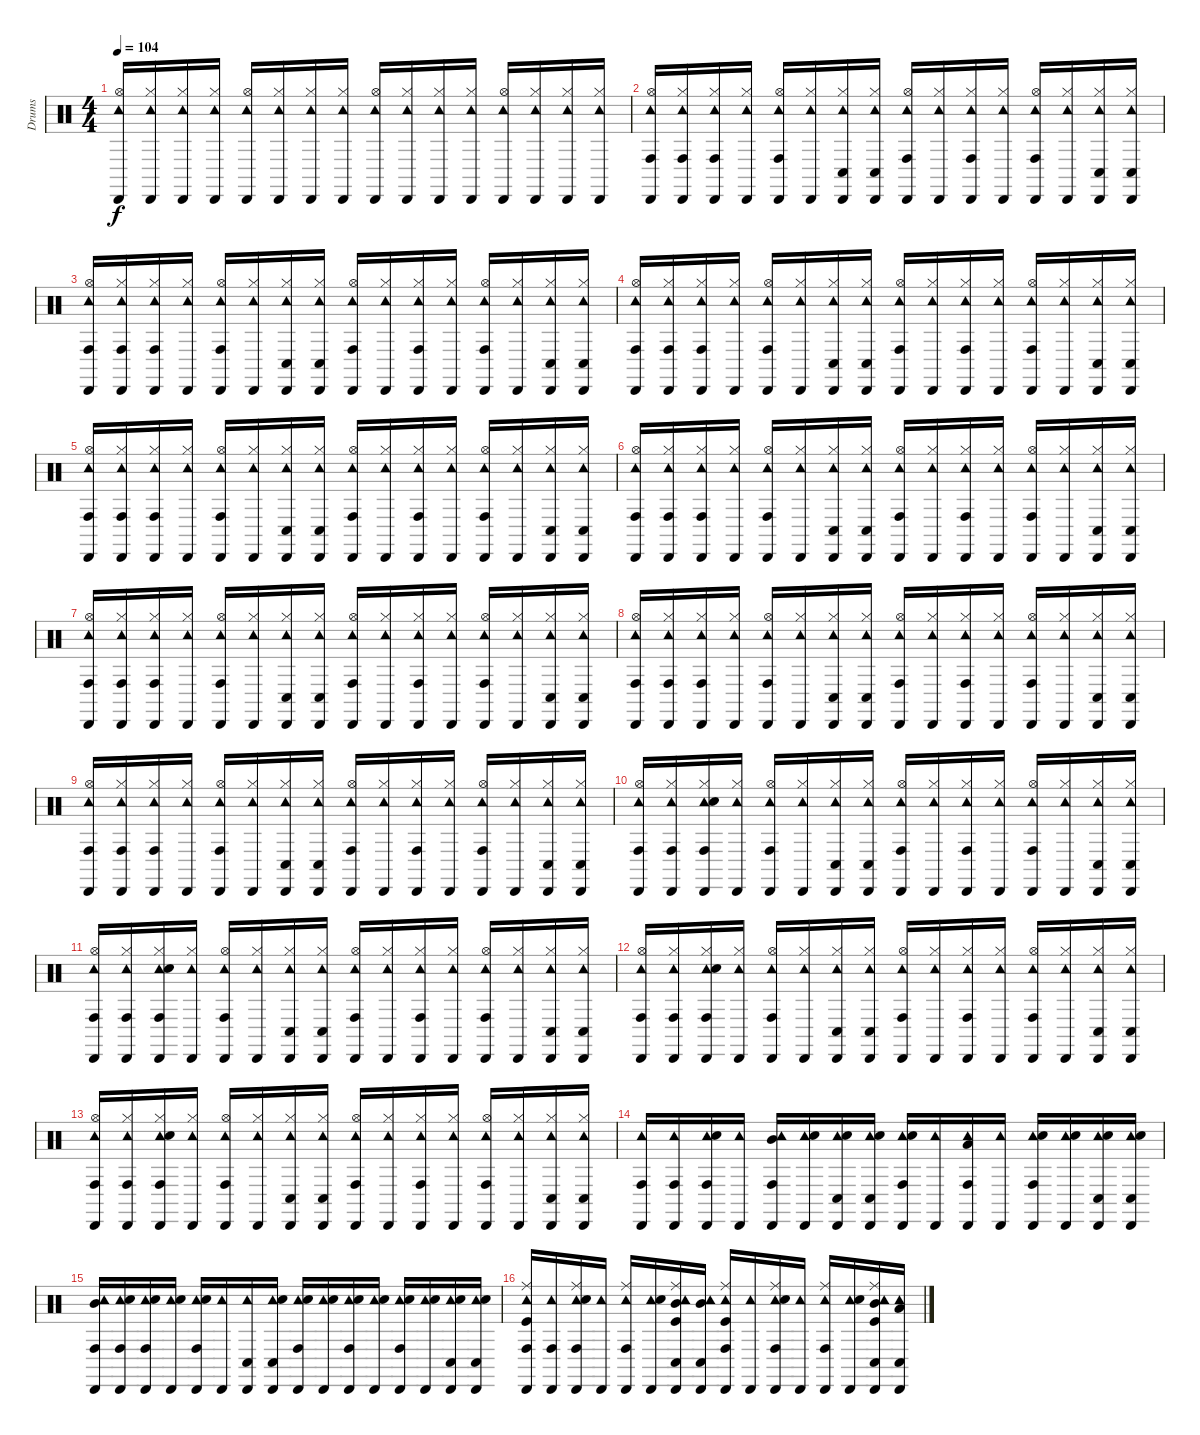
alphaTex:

\track ("Drums" "Drums") {instrument percussion}
\staff {score}
\articulation defaults
\ts (4 4)
\tempo 104
\clef neutral
\ks c
("Cabasa (hit)" "Hi-Hat (open)" "Tambourine (hit)").16{dy f} ("Cabasa (hit)" "Hi-Hat (closed)" "Tambourine (hit)").16 ("Cabasa (hit)" "Hi-Hat (closed)" "Tambourine (hit)").16 ("Cabasa (hit)" "Hi-Hat (closed)" "Tambourine (hit)").16 ("Cabasa (hit)" "Hi-Hat (open)" "Tambourine (hit)").16 ("Cabasa (hit)" "Hi-Hat (closed)" "Tambourine (hit)").16 ("Cabasa (hit)" "Hi-Hat (closed)" "Tambourine (hit)").16 ("Cabasa (hit)" "Hi-Hat (closed)" "Tambourine (hit)").16 ("Cabasa (hit)" "Hi-Hat (open)" "Tambourine (hit)").16 ("Cabasa (hit)" "Hi-Hat (closed)" "Tambourine (hit)").16 ("Cabasa (hit)" "Hi-Hat (closed)" "Tambourine (hit)").16 ("Cabasa (hit)" "Hi-Hat (closed)" "Tambourine (hit)").16 ("Cabasa (hit)" "Hi-Hat (open)" "Tambourine (hit)").16 ("Cabasa (hit)" "Hi-Hat (closed)" "Tambourine (hit)").16 ("Cabasa (hit)" "Hi-Hat (closed)" "Tambourine (hit)").16 ("Cabasa (hit)" "Hi-Hat (closed)" "Tambourine (hit)").16 |
("Cabasa (hit)" "Hi-Hat (open)" "Tambourine (hit)" "Conga high (hit)").16 ("Cabasa (hit)" "Hi-Hat (closed)" "Tambourine (hit)" "Conga high (hit)").16 ("Cabasa (hit)" "Hi-Hat (closed)" "Tambourine (hit)" "Conga high (hit)").16 ("Cabasa (hit)" "Hi-Hat (closed)" "Tambourine (hit)").16 ("Cabasa (hit)" "Hi-Hat (open)" "Tambourine (hit)" "Conga high (hit)").16 ("Cabasa (hit)" "Hi-Hat (closed)" "Tambourine (hit)").16 ("Cabasa (hit)" "Hi-Hat (closed)" "Tambourine (hit)" "Conga low (hit)").16 ("Cabasa (hit)" "Hi-Hat (closed)" "Tambourine (hit)" "Conga low (hit)").16 ("Cabasa (hit)" "Hi-Hat (open)" "Tambourine (hit)" "Conga high (hit)").16 ("Cabasa (hit)" "Hi-Hat (closed)" "Tambourine (hit)").16 ("Cabasa (hit)" "Hi-Hat (closed)" "Tambourine (hit)" "Conga high (hit)").16 ("Cabasa (hit)" "Hi-Hat (closed)" "Tambourine (hit)").16 ("Cabasa (hit)" "Hi-Hat (open)" "Tambourine (hit)" "Conga high (hit)").16 ("Cabasa (hit)" "Hi-Hat (closed)" "Tambourine (hit)").16 ("Cabasa (hit)" "Hi-Hat (closed)" "Tambourine (hit)" "Conga low (hit)").16 ("Cabasa (hit)" "Hi-Hat (closed)" "Tambourine (hit)" "Conga low (hit)").16 |
("Cabasa (hit)" "Hi-Hat (open)" "Tambourine (hit)" "Conga high (hit)").16 ("Cabasa (hit)" "Hi-Hat (closed)" "Tambourine (hit)" "Conga high (hit)").16 ("Cabasa (hit)" "Hi-Hat (closed)" "Tambourine (hit)" "Conga high (hit)").16 ("Cabasa (hit)" "Hi-Hat (closed)" "Tambourine (hit)").16 ("Cabasa (hit)" "Hi-Hat (open)" "Tambourine (hit)" "Conga high (hit)").16 ("Cabasa (hit)" "Hi-Hat (closed)" "Tambourine (hit)").16 ("Cabasa (hit)" "Hi-Hat (closed)" "Tambourine (hit)" "Conga low (hit)").16 ("Cabasa (hit)" "Hi-Hat (closed)" "Tambourine (hit)" "Conga low (hit)").16 ("Cabasa (hit)" "Hi-Hat (open)" "Tambourine (hit)" "Conga high (hit)").16 ("Cabasa (hit)" "Hi-Hat (closed)" "Tambourine (hit)").16 ("Cabasa (hit)" "Hi-Hat (closed)" "Tambourine (hit)" "Conga high (hit)").16 ("Cabasa (hit)" "Hi-Hat (closed)" "Tambourine (hit)").16 ("Cabasa (hit)" "Hi-Hat (open)" "Tambourine (hit)" "Conga high (hit)").16 ("Cabasa (hit)" "Hi-Hat (closed)" "Tambourine (hit)").16 ("Cabasa (hit)" "Hi-Hat (closed)" "Tambourine (hit)" "Conga low (hit)").16 ("Cabasa (hit)" "Hi-Hat (closed)" "Tambourine (hit)" "Conga low (hit)").16 |
("Cabasa (hit)" "Hi-Hat (open)" "Tambourine (hit)" "Conga high (hit)").16 ("Cabasa (hit)" "Hi-Hat (closed)" "Tambourine (hit)" "Conga high (hit)").16 ("Cabasa (hit)" "Hi-Hat (closed)" "Tambourine (hit)" "Conga high (hit)").16 ("Cabasa (hit)" "Hi-Hat (closed)" "Tambourine (hit)").16 ("Cabasa (hit)" "Hi-Hat (open)" "Tambourine (hit)" "Conga high (hit)").16 ("Cabasa (hit)" "Hi-Hat (closed)" "Tambourine (hit)").16 ("Cabasa (hit)" "Hi-Hat (closed)" "Tambourine (hit)" "Conga low (hit)").16 ("Cabasa (hit)" "Hi-Hat (closed)" "Tambourine (hit)" "Conga low (hit)").16 ("Cabasa (hit)" "Hi-Hat (open)" "Tambourine (hit)" "Conga high (hit)").16 ("Cabasa (hit)" "Hi-Hat (closed)" "Tambourine (hit)").16 ("Cabasa (hit)" "Hi-Hat (closed)" "Tambourine (hit)" "Conga high (hit)").16 ("Cabasa (hit)" "Hi-Hat (closed)" "Tambourine (hit)").16 ("Cabasa (hit)" "Hi-Hat (open)" "Tambourine (hit)" "Conga high (hit)").16 ("Cabasa (hit)" "Hi-Hat (closed)" "Tambourine (hit)").16 ("Cabasa (hit)" "Hi-Hat (closed)" "Tambourine (hit)" "Conga low (hit)").16 ("Cabasa (hit)" "Hi-Hat (closed)" "Tambourine (hit)" "Conga low (hit)").16 |
("Cabasa (hit)" "Hi-Hat (open)" "Tambourine (hit)" "Conga high (hit)").16 ("Cabasa (hit)" "Hi-Hat (closed)" "Tambourine (hit)" "Conga high (hit)").16 ("Cabasa (hit)" "Hi-Hat (closed)" "Tambourine (hit)" "Conga high (hit)").16 ("Cabasa (hit)" "Hi-Hat (closed)" "Tambourine (hit)").16 ("Cabasa (hit)" "Hi-Hat (open)" "Tambourine (hit)" "Conga high (hit)").16 ("Cabasa (hit)" "Hi-Hat (closed)" "Tambourine (hit)").16 ("Cabasa (hit)" "Hi-Hat (closed)" "Tambourine (hit)" "Conga low (hit)").16 ("Cabasa (hit)" "Hi-Hat (closed)" "Tambourine (hit)" "Conga low (hit)").16 ("Cabasa (hit)" "Hi-Hat (open)" "Tambourine (hit)" "Conga high (hit)").16 ("Cabasa (hit)" "Hi-Hat (closed)" "Tambourine (hit)").16 ("Cabasa (hit)" "Hi-Hat (closed)" "Tambourine (hit)" "Conga high (hit)").16 ("Cabasa (hit)" "Hi-Hat (closed)" "Tambourine (hit)").16 ("Cabasa (hit)" "Hi-Hat (open)" "Tambourine (hit)" "Conga high (hit)").16 ("Cabasa (hit)" "Hi-Hat (closed)" "Tambourine (hit)").16 ("Cabasa (hit)" "Hi-Hat (closed)" "Tambourine (hit)" "Conga low (hit)").16 ("Cabasa (hit)" "Hi-Hat (closed)" "Tambourine (hit)" "Conga low (hit)").16 |
("Cabasa (hit)" "Hi-Hat (open)" "Tambourine (hit)" "Conga high (hit)").16 ("Cabasa (hit)" "Hi-Hat (closed)" "Tambourine (hit)" "Conga high (hit)").16 ("Cabasa (hit)" "Hi-Hat (closed)" "Tambourine (hit)" "Conga high (hit)").16 ("Cabasa (hit)" "Hi-Hat (closed)" "Tambourine (hit)").16 ("Cabasa (hit)" "Hi-Hat (open)" "Tambourine (hit)" "Conga high (hit)").16 ("Cabasa (hit)" "Hi-Hat (closed)" "Tambourine (hit)").16 ("Cabasa (hit)" "Hi-Hat (closed)" "Tambourine (hit)" "Conga low (hit)").16 ("Cabasa (hit)" "Hi-Hat (closed)" "Tambourine (hit)" "Conga low (hit)").16 ("Cabasa (hit)" "Hi-Hat (open)" "Tambourine (hit)" "Conga high (hit)").16 ("Cabasa (hit)" "Hi-Hat (closed)" "Tambourine (hit)").16 ("Cabasa (hit)" "Hi-Hat (closed)" "Tambourine (hit)" "Conga high (hit)").16 ("Cabasa (hit)" "Hi-Hat (closed)" "Tambourine (hit)").16 ("Cabasa (hit)" "Hi-Hat (open)" "Tambourine (hit)" "Conga high (hit)").16 ("Cabasa (hit)" "Hi-Hat (closed)" "Tambourine (hit)").16 ("Cabasa (hit)" "Hi-Hat (closed)" "Tambourine (hit)" "Conga low (hit)").16 ("Cabasa (hit)" "Hi-Hat (closed)" "Tambourine (hit)" "Conga low (hit)").16 |
("Cabasa (hit)" "Hi-Hat (open)" "Tambourine (hit)" "Conga high (hit)").16 ("Cabasa (hit)" "Hi-Hat (closed)" "Tambourine (hit)" "Conga high (hit)").16 ("Cabasa (hit)" "Hi-Hat (closed)" "Tambourine (hit)" "Conga high (hit)").16 ("Cabasa (hit)" "Hi-Hat (closed)" "Tambourine (hit)").16 ("Cabasa (hit)" "Hi-Hat (open)" "Tambourine (hit)" "Conga high (hit)").16 ("Cabasa (hit)" "Hi-Hat (closed)" "Tambourine (hit)").16 ("Cabasa (hit)" "Hi-Hat (closed)" "Tambourine (hit)" "Conga low (hit)").16 ("Cabasa (hit)" "Hi-Hat (closed)" "Tambourine (hit)" "Conga low (hit)").16 ("Cabasa (hit)" "Hi-Hat (open)" "Tambourine (hit)" "Conga high (hit)").16 ("Cabasa (hit)" "Hi-Hat (closed)" "Tambourine (hit)").16 ("Cabasa (hit)" "Hi-Hat (closed)" "Tambourine (hit)" "Conga high (hit)").16 ("Cabasa (hit)" "Hi-Hat (closed)" "Tambourine (hit)").16 ("Cabasa (hit)" "Hi-Hat (open)" "Tambourine (hit)" "Conga high (hit)").16 ("Cabasa (hit)" "Hi-Hat (closed)" "Tambourine (hit)").16 ("Cabasa (hit)" "Hi-Hat (closed)" "Tambourine (hit)" "Conga low (hit)").16 ("Cabasa (hit)" "Hi-Hat (closed)" "Tambourine (hit)" "Conga low (hit)").16 |
("Cabasa (hit)" "Hi-Hat (open)" "Tambourine (hit)" "Conga high (hit)").16 ("Cabasa (hit)" "Hi-Hat (closed)" "Tambourine (hit)" "Conga high (hit)").16 ("Cabasa (hit)" "Hi-Hat (closed)" "Tambourine (hit)" "Conga high (hit)").16 ("Cabasa (hit)" "Hi-Hat (closed)" "Tambourine (hit)").16 ("Cabasa (hit)" "Hi-Hat (open)" "Tambourine (hit)" "Conga high (hit)").16 ("Cabasa (hit)" "Hi-Hat (closed)" "Tambourine (hit)").16 ("Cabasa (hit)" "Hi-Hat (closed)" "Tambourine (hit)" "Conga low (hit)").16 ("Cabasa (hit)" "Hi-Hat (closed)" "Tambourine (hit)" "Conga low (hit)").16 ("Cabasa (hit)" "Hi-Hat (open)" "Tambourine (hit)" "Conga high (hit)").16 ("Cabasa (hit)" "Hi-Hat (closed)" "Tambourine (hit)").16 ("Cabasa (hit)" "Hi-Hat (closed)" "Tambourine (hit)" "Conga high (hit)").16 ("Cabasa (hit)" "Hi-Hat (closed)" "Tambourine (hit)").16 ("Cabasa (hit)" "Hi-Hat (open)" "Tambourine (hit)" "Conga high (hit)").16 ("Cabasa (hit)" "Hi-Hat (closed)" "Tambourine (hit)").16 ("Cabasa (hit)" "Hi-Hat (closed)" "Tambourine (hit)" "Conga low (hit)").16 ("Cabasa (hit)" "Hi-Hat (closed)" "Tambourine (hit)" "Conga low (hit)").16 |
("Cabasa (hit)" "Hi-Hat (open)" "Tambourine (hit)" "Conga high (hit)").16 ("Cabasa (hit)" "Hi-Hat (closed)" "Tambourine (hit)" "Conga high (hit)").16 ("Cabasa (hit)" "Hi-Hat (closed)" "Tambourine (hit)" "Conga high (hit)").16 ("Cabasa (hit)" "Hi-Hat (closed)" "Tambourine (hit)").16 ("Cabasa (hit)" "Hi-Hat (open)" "Tambourine (hit)" "Conga high (hit)").16 ("Cabasa (hit)" "Hi-Hat (closed)" "Tambourine (hit)").16 ("Cabasa (hit)" "Hi-Hat (closed)" "Tambourine (hit)" "Conga low (hit)").16 ("Cabasa (hit)" "Hi-Hat (closed)" "Tambourine (hit)" "Conga low (hit)").16 ("Cabasa (hit)" "Hi-Hat (open)" "Tambourine (hit)" "Conga high (hit)").16 ("Cabasa (hit)" "Hi-Hat (closed)" "Tambourine (hit)").16 ("Cabasa (hit)" "Hi-Hat (closed)" "Tambourine (hit)" "Conga high (hit)").16 ("Cabasa (hit)" "Hi-Hat (closed)" "Tambourine (hit)").16 ("Cabasa (hit)" "Hi-Hat (open)" "Tambourine (hit)" "Conga high (hit)").16 ("Cabasa (hit)" "Hi-Hat (closed)" "Tambourine (hit)").16 ("Cabasa (hit)" "Hi-Hat (closed)" "Tambourine (hit)" "Conga low (hit)").16 ("Cabasa (hit)" "Hi-Hat (closed)" "Tambourine (hit)" "Conga low (hit)").16 |
("Cabasa (hit)" "Hi-Hat (open)" "Tambourine (hit)" "Conga high (hit)").16 ("Cabasa (hit)" "Hi-Hat (closed)" "Tambourine (hit)" "Conga high (hit)").16 ("Cabasa (hit)" "Hi-Hat (closed)" "Tambourine (hit)" "Conga high (hit)" "Electric Snare (hit)").16 ("Cabasa (hit)" "Hi-Hat (closed)" "Tambourine (hit)").16 ("Cabasa (hit)" "Hi-Hat (open)" "Tambourine (hit)" "Conga high (hit)").16 ("Cabasa (hit)" "Hi-Hat (closed)" "Tambourine (hit)").16 ("Cabasa (hit)" "Hi-Hat (closed)" "Tambourine (hit)" "Conga low (hit)").16 ("Cabasa (hit)" "Hi-Hat (closed)" "Tambourine (hit)" "Conga low (hit)").16 ("Cabasa (hit)" "Hi-Hat (open)" "Tambourine (hit)" "Conga high (hit)").16 ("Cabasa (hit)" "Hi-Hat (closed)" "Tambourine (hit)").16 ("Cabasa (hit)" "Hi-Hat (closed)" "Tambourine (hit)" "Conga high (hit)").16 ("Cabasa (hit)" "Hi-Hat (closed)" "Tambourine (hit)").16 ("Cabasa (hit)" "Hi-Hat (open)" "Tambourine (hit)" "Conga high (hit)").16 ("Cabasa (hit)" "Hi-Hat (closed)" "Tambourine (hit)").16 ("Cabasa (hit)" "Hi-Hat (closed)" "Tambourine (hit)" "Conga low (hit)").16 ("Cabasa (hit)" "Hi-Hat (closed)" "Tambourine (hit)" "Conga low (hit)").16 |
("Cabasa (hit)" "Hi-Hat (open)" "Tambourine (hit)" "Conga high (hit)").16 ("Cabasa (hit)" "Hi-Hat (closed)" "Tambourine (hit)" "Conga high (hit)").16 ("Cabasa (hit)" "Hi-Hat (closed)" "Tambourine (hit)" "Conga high (hit)" "Electric Snare (hit)").16 ("Cabasa (hit)" "Hi-Hat (closed)" "Tambourine (hit)").16 ("Cabasa (hit)" "Hi-Hat (open)" "Tambourine (hit)" "Conga high (hit)").16 ("Cabasa (hit)" "Hi-Hat (closed)" "Tambourine (hit)").16 ("Cabasa (hit)" "Hi-Hat (closed)" "Tambourine (hit)" "Conga low (hit)").16 ("Cabasa (hit)" "Hi-Hat (closed)" "Tambourine (hit)" "Conga low (hit)").16 ("Cabasa (hit)" "Hi-Hat (open)" "Tambourine (hit)" "Conga high (hit)").16 ("Cabasa (hit)" "Hi-Hat (closed)" "Tambourine (hit)").16 ("Cabasa (hit)" "Hi-Hat (closed)" "Tambourine (hit)" "Conga high (hit)").16 ("Cabasa (hit)" "Hi-Hat (closed)" "Tambourine (hit)").16 ("Cabasa (hit)" "Hi-Hat (open)" "Tambourine (hit)" "Conga high (hit)").16 ("Cabasa (hit)" "Hi-Hat (closed)" "Tambourine (hit)").16 ("Cabasa (hit)" "Hi-Hat (closed)" "Tambourine (hit)" "Conga low (hit)").16 ("Cabasa (hit)" "Hi-Hat (closed)" "Tambourine (hit)" "Conga low (hit)").16 |
("Cabasa (hit)" "Hi-Hat (open)" "Tambourine (hit)" "Conga high (hit)").16 ("Cabasa (hit)" "Hi-Hat (closed)" "Tambourine (hit)" "Conga high (hit)").16 ("Cabasa (hit)" "Hi-Hat (closed)" "Tambourine (hit)" "Conga high (hit)" "Electric Snare (hit)").16 ("Cabasa (hit)" "Hi-Hat (closed)" "Tambourine (hit)").16 ("Cabasa (hit)" "Hi-Hat (open)" "Tambourine (hit)" "Conga high (hit)").16 ("Cabasa (hit)" "Hi-Hat (closed)" "Tambourine (hit)").16 ("Cabasa (hit)" "Hi-Hat (closed)" "Tambourine (hit)" "Conga low (hit)").16 ("Cabasa (hit)" "Hi-Hat (closed)" "Tambourine (hit)" "Conga low (hit)").16 ("Cabasa (hit)" "Hi-Hat (open)" "Tambourine (hit)" "Conga high (hit)").16 ("Cabasa (hit)" "Hi-Hat (closed)" "Tambourine (hit)").16 ("Cabasa (hit)" "Hi-Hat (closed)" "Tambourine (hit)" "Conga high (hit)").16 ("Cabasa (hit)" "Hi-Hat (closed)" "Tambourine (hit)").16 ("Cabasa (hit)" "Hi-Hat (open)" "Tambourine (hit)" "Conga high (hit)").16 ("Cabasa (hit)" "Hi-Hat (closed)" "Tambourine (hit)").16 ("Cabasa (hit)" "Hi-Hat (closed)" "Tambourine (hit)" "Conga low (hit)").16 ("Cabasa (hit)" "Hi-Hat (closed)" "Tambourine (hit)" "Conga low (hit)").16 |
("Cabasa (hit)" "Hi-Hat (open)" "Tambourine (hit)" "Conga high (hit)").16 ("Cabasa (hit)" "Hi-Hat (closed)" "Tambourine (hit)" "Conga high (hit)").16 ("Cabasa (hit)" "Hi-Hat (closed)" "Tambourine (hit)" "Conga high (hit)" "Electric Snare (hit)").16 ("Cabasa (hit)" "Hi-Hat (closed)" "Tambourine (hit)").16 ("Cabasa (hit)" "Hi-Hat (open)" "Tambourine (hit)" "Conga high (hit)").16 ("Cabasa (hit)" "Hi-Hat (closed)" "Tambourine (hit)").16 ("Cabasa (hit)" "Hi-Hat (closed)" "Tambourine (hit)" "Conga low (hit)").16 ("Cabasa (hit)" "Hi-Hat (closed)" "Tambourine (hit)" "Conga low (hit)").16 ("Cabasa (hit)" "Hi-Hat (open)" "Tambourine (hit)" "Conga high (hit)").16 ("Cabasa (hit)" "Hi-Hat (closed)" "Tambourine (hit)").16 ("Cabasa (hit)" "Hi-Hat (closed)" "Tambourine (hit)" "Conga high (hit)").16 ("Cabasa (hit)" "Hi-Hat (closed)" "Tambourine (hit)").16 ("Cabasa (hit)" "Hi-Hat (open)" "Tambourine (hit)" "Conga high (hit)").16 ("Cabasa (hit)" "Hi-Hat (closed)" "Tambourine (hit)").16 ("Cabasa (hit)" "Hi-Hat (closed)" "Tambourine (hit)" "Conga low (hit)").16 ("Cabasa (hit)" "Hi-Hat (closed)" "Tambourine (hit)" "Conga low (hit)").16 |
("Cabasa (hit)" "Conga high (hit)" "Tambourine (hit)").16 ("Cabasa (hit)" "Conga high (hit)" "Tambourine (hit)").16 ("Cabasa (hit)" "Conga high (hit)" "Tambourine (hit)" "Electric Snare (hit)").16 ("Cabasa (hit)" "Tambourine (hit)").16 ("Cabasa (hit)" "Conga high (hit)" "Tambourine (hit)" "Mid Tom (hit)").16 ("Cabasa (hit)" "Tambourine (hit)" "Electric Snare (hit)").16 ("Cabasa (hit)" "Conga low (hit)" "Tambourine (hit)" "Electric Snare (hit)").16 ("Cabasa (hit)" "Conga low (hit)" "Tambourine (hit)" "Electric Snare (hit)").16 ("Cabasa (hit)" "Conga high (hit)" "Tambourine (hit)" "Electric Snare (hit)").16 ("Cabasa (hit)" "Tambourine (hit)").16 ("Cabasa (hit)" "Conga high (hit)" "Tambourine (hit)" "Low Tom (hit)").16 ("Cabasa (hit)" "Tambourine (hit)").16 ("Cabasa (hit)" "Conga high (hit)" "Tambourine (hit)" "Electric Snare (hit)").16 ("Cabasa (hit)" "Tambourine (hit)" "Electric Snare (hit)").16 ("Cabasa (hit)" "Conga low (hit)" "Tambourine (hit)" "Electric Snare (hit)").16 ("Cabasa (hit)" "Conga low (hit)" "Tambourine (hit)" "Electric Snare (hit)").16 |
("Cabasa (hit)" "Conga high (hit)" "Tambourine (hit)" "Mid Tom (hit)").16 ("Cabasa (hit)" "Conga high (hit)" "Tambourine (hit)" "Electric Snare (hit)").16 ("Cabasa (hit)" "Conga high (hit)" "Tambourine (hit)" "Electric Snare (hit)").16 ("Cabasa (hit)" "Tambourine (hit)" "Electric Snare (hit)").16 ("Cabasa (hit)" "Conga high (hit)" "Tambourine (hit)" "Electric Snare (hit)").16 ("Cabasa (hit)" "Tambourine (hit)").16 ("Cabasa (hit)" "Conga low (hit)" "Tambourine (hit)").16 ("Cabasa (hit)" "Conga low (hit)" "Tambourine (hit)" "Electric Snare (hit)").16 ("Cabasa (hit)" "Conga high (hit)" "Tambourine (hit)" "Electric Snare (hit)").16 ("Cabasa (hit)" "Tambourine (hit)" "Electric Snare (hit)").16 ("Cabasa (hit)" "Conga high (hit)" "Tambourine (hit)" "Electric Snare (hit)").16 ("Cabasa (hit)" "Tambourine (hit)" "Electric Snare (hit)").16 ("Cabasa (hit)" "Conga high (hit)" "Tambourine (hit)" "Electric Snare (hit)").16 ("Cabasa (hit)" "Tambourine (hit)" "Electric Snare (hit)").16 ("Cabasa (hit)" "Conga low (hit)" "Tambourine (hit)" "Electric Snare (hit)").16 ("Cabasa (hit)" "Conga low (hit)" "Tambourine (hit)" "Electric Snare (hit)").16 |
("Cabasa (hit)" "Conga high (hit)" "Tambourine (hit)" "Ride (middle)" "Kick (hit)").16 ("Cabasa (hit)" "Conga high (hit)" "Tambourine (hit)").16 ("Cabasa (hit)" "Conga high (hit)" "Tambourine (hit)" "Ride (middle)" "Electric Snare (hit)").16 ("Cabasa (hit)" "Tambourine (hit)").16 ("Cabasa (hit)" "Conga high (hit)" "Tambourine (hit)" "Ride (middle)").16 ("Cabasa (hit)" "Tambourine (hit)" "Electric Snare (hit)").16 ("Cabasa (hit)" "Conga low (hit)" "Tambourine (hit)" "Ride (middle)" "Mid Tom (hit)" "Kick (hit)").16 ("Cabasa (hit)" "Conga low (hit)" "Tambourine (hit)" "Mid Tom (hit)").16 ("Cabasa (hit)" "Conga high (hit)" "Tambourine (hit)" "Ride (middle)" "Kick (hit)").16 ("Cabasa (hit)" "Tambourine (hit)").16 ("Cabasa (hit)" "Conga high (hit)" "Tambourine (hit)" "Ride (middle)" "Electric Snare (hit)").16 ("Cabasa (hit)" "Tambourine (hit)").16 ("Cabasa (hit)" "Conga high (hit)" "Tambourine (hit)" "Ride (middle)").16 ("Cabasa (hit)" "Tambourine (hit)" "Electric Snare (hit)").16 ("Cabasa (hit)" "Conga low (hit)" "Tambourine (hit)" "Ride (middle)" "Mid Tom (hit)" "Kick (hit)").16 ("Cabasa (hit)" "Conga low (hit)" "Tambourine (hit)" "Low Tom (hit)").16
